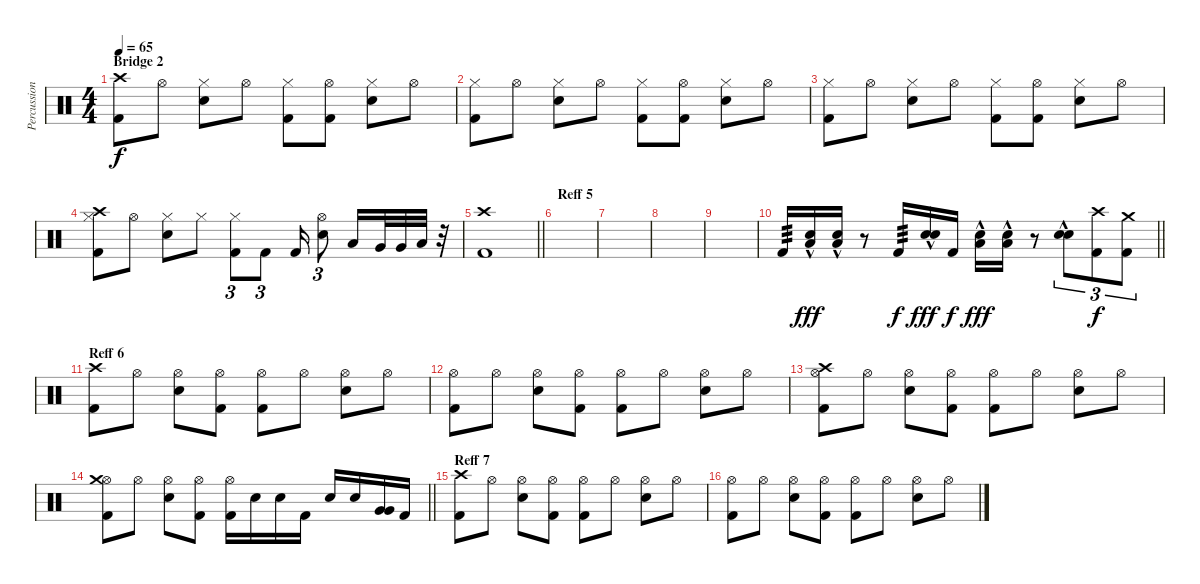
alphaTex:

\track ("Percussion" "Percussion") {instrument percussion}
\staff {score}
\articulation defaults
\ts (4 4)
\section ("" "Bridge 2")
\tempo 65
\clef neutral
\ks c
("Crash high (hit)" "Kick (hit) 2").8{dy f} "Hi-Hat (open)".8 ("Hi-Hat (closed)" "Electric Snare (hit)").8 "Hi-Hat (open)".8 ("Hi-Hat (closed)" "Kick (hit) 2").8 ("Hi-Hat (open)" "Kick (hit) 2").8 ("Hi-Hat (closed)" "Electric Snare (hit)").8 "Hi-Hat (open)".8 |
("Hi-Hat (closed)" "Kick (hit) 2").8 "Hi-Hat (open)".8 ("Hi-Hat (closed)" "Electric Snare (hit)").8 "Hi-Hat (open)".8 ("Hi-Hat (closed)" "Kick (hit) 2").8 ("Hi-Hat (open)" "Kick (hit) 2").8 ("Hi-Hat (closed)" "Electric Snare (hit)").8 "Hi-Hat (open)".8 |
("Hi-Hat (closed)" "Kick (hit) 2").8 "Hi-Hat (open)".8 ("Hi-Hat (closed)" "Electric Snare (hit)").8 "Hi-Hat (open)".8 ("Hi-Hat (closed)" "Kick (hit) 2").8 ("Hi-Hat (open)" "Kick (hit) 2").8 ("Hi-Hat (closed)" "Electric Snare (hit)").8 "Hi-Hat (open)".8 |
("Hi-Hat (closed)" "Crash high (hit)" "Kick (hit) 2").8 "Hi-Hat (open)".8 ("Hi-Hat (closed)" "Electric Snare (hit)").8 "Hi-Hat (closed)".8 ("Hi-Hat (closed)" "Kick (hit) 2").8{tu (3 2)} "Kick (hit) 2".8{tu (3 2)} "Kick (hit) 2".16 ("Hi-Hat (open)" "Electric Snare (hit)").8{tu (3 2)} "Low Tom (hit)".16 "Very Low Tom (hit)".32 "Very Low Tom (hit)".32 "Low Floor Tom (hit)".32 r.32 |
\barLineRight lightlight
("Crash high (hit)" "Kick (hit) 2").1 |
\section ("" "Reff 5")
|
|
|
|
\barLineRight lightlight "Kick (hit) 2".16{tp 3}
("Electric Snare (hit)"{hac} "Low Floor Tom (hit)"{hac}).16{dy fff} ("Electric Snare (hit)"{hac} "Low Floor Tom (hit)"{hac}).16 r.8 "Kick (hit) 2".16{tp 3 dy f} ("Electric Snare (hit)"{hac} "Electric Snare (hit)"{hac}).16{bd 60 dy fff} "Kick (hit) 2".16{dy f} ("Electric Snare (hit)"{hac} "Low Floor Tom (hit)"{hac}).16{dy fff} ("Electric Snare (hit)"{hac} "Low Floor Tom (hit)"{hac}).16 r.8 ("Electric Snare (hit)"{hac} "Electric Snare (hit)"{hac}).8{tu (3 2) bd 60} ("Crash high (hit)" "Kick (hit) 2").8{tu (3 2) dy f} ("Crash medium (hit)" "Kick (hit) 2").8{tu (3 2)} |
\section ("" "Reff 6")
("Crash high (hit)" "Kick (hit) 2").8 "Hi-Hat (open)".8 ("Hi-Hat (open)" "Electric Snare (hit)").8 ("Hi-Hat (open)" "Kick (hit) 2").8 ("Hi-Hat (open)" "Kick (hit) 2").8 "Hi-Hat (open)".8 ("Hi-Hat (open)" "Electric Snare (hit)").8 "Hi-Hat (open)".8 |
("Hi-Hat (open)" "Kick (hit) 2").8 "Hi-Hat (open)".8 ("Hi-Hat (open)" "Electric Snare (hit)").8 ("Hi-Hat (open)" "Kick (hit) 2").8 ("Hi-Hat (open)" "Kick (hit) 2").8 "Hi-Hat (open)".8 ("Hi-Hat (open)" "Electric Snare (hit)").8 "Hi-Hat (open)".8 |
("Hi-Hat (open)" "Crash high (hit)" "Kick (hit) 2").8 "Hi-Hat (open)".8 ("Hi-Hat (open)" "Electric Snare (hit)").8 ("Hi-Hat (open)" "Kick (hit) 2").8 ("Hi-Hat (open)" "Kick (hit) 2").8 "Hi-Hat (open)".8 ("Hi-Hat (open)" "Electric Snare (hit)").8 "Hi-Hat (open)".8 |
\barLineRight lightlight
("Hi-Hat (open)" "Crash medium (hit)" "Kick (hit) 2").8 "Hi-Hat (open)".8 ("Hi-Hat (open)" "Electric Snare (hit)").8 ("Hi-Hat (open)" "Kick (hit) 2").8 ("Hi-Hat (open)" "Kick (hit) 2").16 "Electric Snare (hit)".16 "Electric Snare (hit)".16 "Kick (hit) 2".16 "Electric Snare (hit)".16 "Electric Snare (hit)".16 ("Very Low Tom (hit)" "Very Low Tom (hit)").16{bd 60} "Kick (hit) 2".16 |
\section ("" "Reff 7")
("Crash high (hit)" "Kick (hit) 2").8 "Hi-Hat (open)".8 ("Hi-Hat (open)" "Electric Snare (hit)").8 ("Hi-Hat (open)" "Kick (hit) 2").8 ("Hi-Hat (open)" "Kick (hit) 2").8 "Hi-Hat (open)".8 ("Hi-Hat (open)" "Electric Snare (hit)").8 "Hi-Hat (open)".8 |
("Hi-Hat (open)" "Kick (hit) 2").8 "Hi-Hat (open)".8 ("Hi-Hat (open)" "Electric Snare (hit)").8 ("Hi-Hat (open)" "Kick (hit) 2").8 ("Hi-Hat (open)" "Kick (hit) 2").8 "Hi-Hat (open)".8 ("Hi-Hat (open)" "Electric Snare (hit)").8 "Hi-Hat (open)".8
